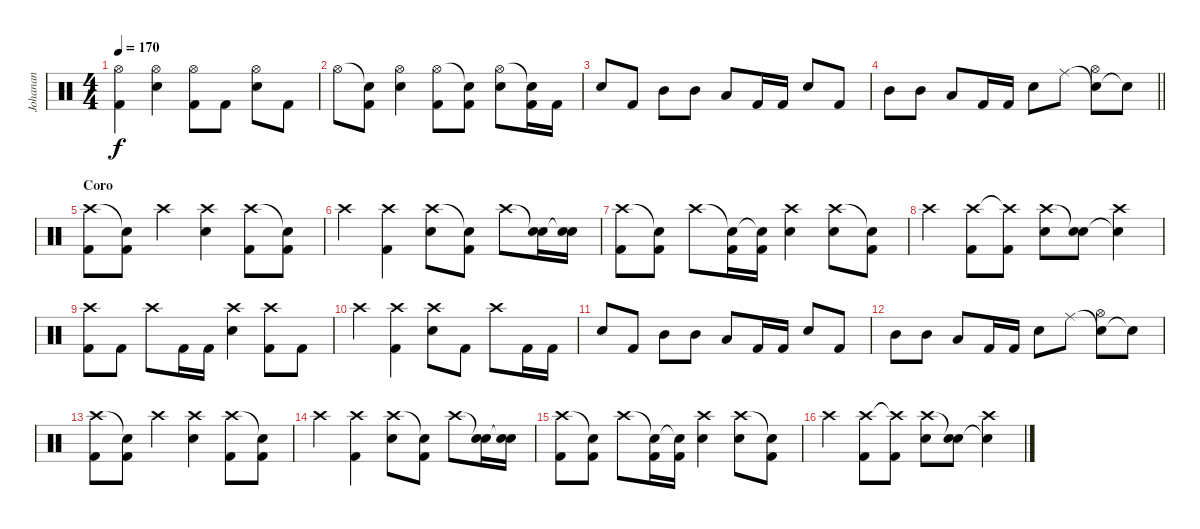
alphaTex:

\track ("Johanan" "Johanan") {instrument percussion}
\staff {score}
\articulation defaults
\ts (4 4)
\tempo 170
\clef neutral
\ks c
("Hi-Hat (open)" "Kick (hit) 2").4{dy f} ("Hi-Hat (open)" "Electric Snare (hit)").4 ("Hi-Hat (open)" "Kick (hit) 2").8 "Kick (hit) 2".8 ("Hi-Hat (open)" "Electric Snare (hit)").8 "Kick (hit) 2".8 |
"Hi-Hat (open)".8 ("Snare (hit)"{t} "Kick (hit) 2").8 ("Hi-Hat (open)" "Electric Snare (hit)").4 ("Hi-Hat (open)" "Kick (hit) 2").8 ("Snare (hit)"{t} "Kick (hit) 2").8 ("Hi-Hat (open)" "Electric Snare (hit)").8 ("Snare (hit)"{t} "Kick (hit) 2").16 "Kick (hit) 2".16 |
"Electric Snare (hit)".8 "Kick (hit) 2".8 "Mid Tom (hit)".8 "Mid Tom (hit)".8 "Low Tom (hit)".8 "Kick (hit) 2".16 "Kick (hit) 2".16 "Electric Snare (hit)".8 "Kick (hit) 2".8 |
\barLineRight lightlight "Mid Tom (hit)".8 "Mid Tom (hit)".8 "Low Tom (hit)".8 "Kick (hit) 2".16 "Kick (hit) 2".16 "Electric Snare (hit)".8 "Ride (middle)".8
("Snare (hit)"{t} "Hi-Hat (open)").8 "Snare (hit)"{t}.8 |
\section ("" "Coro")
("Crash high (hit)" "Kick (hit) 2").8 ("Snare (hit)"{t} "Kick (hit) 2").8 "Crash high (hit)".4 ("Crash high (hit)" "Electric Snare (hit)").4 ("Crash high (hit)" "Kick (hit) 2").8 ("Snare (hit)"{t} "Kick (hit) 2").8 |
"Crash high (hit)".4 ("Crash high (hit)" "Kick (hit) 2").4 ("Crash high (hit)" "Electric Snare (hit)").8 ("Snare (hit)"{t} "Kick (hit) 2").8 "Crash high (hit)".8 ("Snare (hit)"{t} "Electric Snare (hit)").16 ("Snare (hit)"{t} "Electric Snare (hit)").16 |
("Crash high (hit)" "Kick (hit) 2").8 ("Snare (hit)"{t} "Kick (hit) 2").8 "Crash high (hit)".8 ("Snare (hit)"{t} "Kick (hit) 2").16 ("Snare (hit)"{t} "Kick (hit) 2").16 ("Crash high (hit)" "Electric Snare (hit)").4 ("Crash high (hit)" "Electric Snare (hit)").8 ("Snare (hit)"{t} "Kick (hit) 2").8 |
"Crash high (hit)".4 ("Crash high (hit)" "Kick (hit) 2").8 ("Crash high (hit)"{t} "Kick (hit) 2").8 ("Crash high (hit)" "Electric Snare (hit)").8 ("Snare (hit)"{t} "Electric Snare (hit)").8 ("Crash high (hit)" "Snare (hit)"{t}).4 |
("Crash high (hit)" "Kick (hit) 2").8 "Kick (hit) 2".8 "Crash high (hit)".8 "Kick (hit) 2".16 "Kick (hit) 2".16 ("Crash high (hit)" "Electric Snare (hit)").4 ("Crash high (hit)" "Kick (hit) 2").8 "Kick (hit) 2".8 |
"Crash high (hit)".4 ("Crash high (hit)" "Kick (hit) 2").4 ("Crash high (hit)" "Electric Snare (hit)").8 "Kick (hit) 2".8 "Crash high (hit)".8 "Kick (hit) 2".16 "Kick (hit) 2".16 |
"Electric Snare (hit)".8 "Kick (hit) 2".8 "Mid Tom (hit)".8 "Mid Tom (hit)".8 "Low Tom (hit)".8 "Kick (hit) 2".16 "Kick (hit) 2".16 "Electric Snare (hit)".8 "Kick (hit) 2".8 |
"Mid Tom (hit)".8 "Mid Tom (hit)".8 "Low Tom (hit)".8 "Kick (hit) 2".16 "Kick (hit) 2".16 "Electric Snare (hit)".8 "Ride (middle)".8 ("Snare (hit)"{t} "Hi-Hat (open)").8 "Snare (hit)"{t}.8 |
("Crash high (hit)" "Kick (hit) 2").8 ("Snare (hit)"{t} "Kick (hit) 2").8 "Crash high (hit)".4 ("Crash high (hit)" "Electric Snare (hit)").4 ("Crash high (hit)" "Kick (hit) 2").8 ("Snare (hit)"{t} "Kick (hit) 2").8 |
"Crash high (hit)".4 ("Crash high (hit)" "Kick (hit) 2").4 ("Crash high (hit)" "Electric Snare (hit)").8 ("Snare (hit)"{t} "Kick (hit) 2").8 "Crash high (hit)".8 ("Snare (hit)"{t} "Electric Snare (hit)").16 ("Snare (hit)"{t} "Electric Snare (hit)").16 |
("Crash high (hit)" "Kick (hit) 2").8 ("Snare (hit)"{t} "Kick (hit) 2").8 "Crash high (hit)".8 ("Snare (hit)"{t} "Kick (hit) 2").16 ("Snare (hit)"{t} "Kick (hit) 2").16 ("Crash high (hit)" "Electric Snare (hit)").4 ("Crash high (hit)" "Electric Snare (hit)").8 ("Snare (hit)"{t} "Kick (hit) 2").8 |
"Crash high (hit)".4 ("Crash high (hit)" "Kick (hit) 2").8 ("Crash high (hit)"{t} "Kick (hit) 2").8 ("Crash high (hit)" "Electric Snare (hit)").8 ("Snare (hit)"{t} "Electric Snare (hit)").8 ("Crash high (hit)" "Snare (hit)"{t}).4
